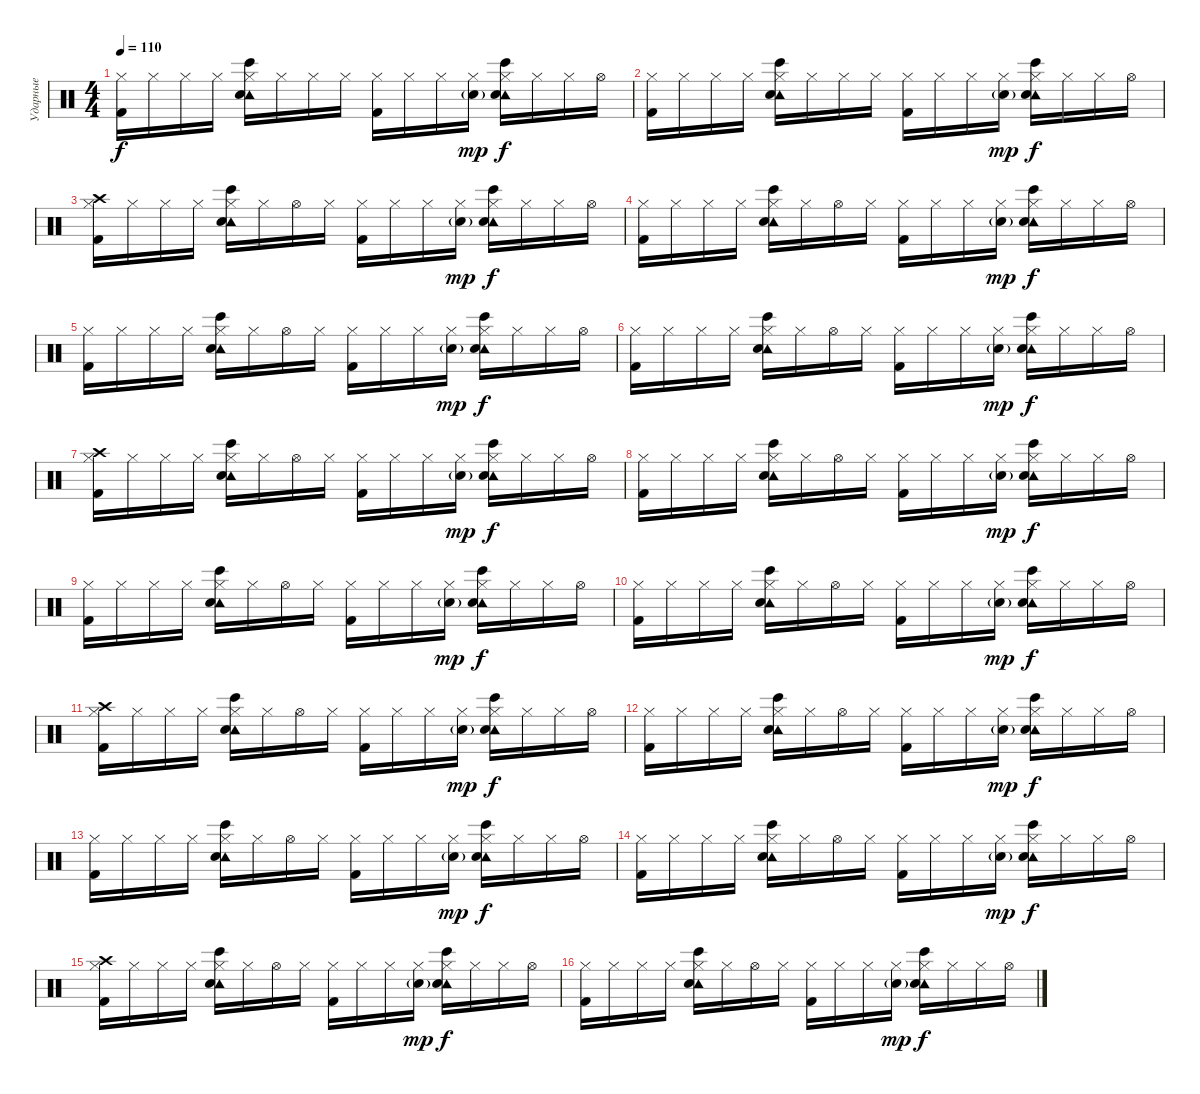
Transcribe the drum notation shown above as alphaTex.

\track ("Ударные" "Ударные") {instrument percussion}
\staff {score}
\articulation defaults
\ts (4 4)
\tempo 110
\clef neutral
\ks c
("Hi-Hat (closed)" "Kick (hit) 2").16{dy f} "Hi-Hat (closed)".16 "Hi-Hat (closed)".16 "Hi-Hat (closed)".16 ("Hi-Hat (closed)" "Tambourine (hit)" "Electric Snare (hit)" "Bongo High (hit)").16 "Hi-Hat (closed)".16 "Hi-Hat (closed)".16 "Hi-Hat (closed)".16 ("Hi-Hat (closed)" "Kick (hit) 2").16 "Hi-Hat (closed)".16 "Hi-Hat (closed)".16 ("Hi-Hat (closed)" "Electric Snare (hit)"{g}).16{dy mp} ("Hi-Hat (closed)" "Tambourine (hit)" "Electric Snare (hit)" "Bongo High (hit)").16{dy f} "Hi-Hat (closed)".16 "Hi-Hat (closed)".16 "Hi-Hat (open)".16 |
("Hi-Hat (closed)" "Kick (hit) 2").16 "Hi-Hat (closed)".16 "Hi-Hat (closed)".16 "Hi-Hat (closed)".16 ("Hi-Hat (closed)" "Tambourine (hit)" "Electric Snare (hit)" "Bongo High (hit)").16 "Hi-Hat (closed)".16 "Hi-Hat (closed)".16 "Hi-Hat (closed)".16 ("Hi-Hat (closed)" "Kick (hit) 2").16 "Hi-Hat (closed)".16 "Hi-Hat (closed)".16 ("Hi-Hat (closed)" "Electric Snare (hit)"{g}).16{dy mp} ("Hi-Hat (closed)" "Tambourine (hit)" "Electric Snare (hit)" "Bongo High (hit)").16{dy f} "Hi-Hat (closed)".16 "Hi-Hat (closed)".16 "Hi-Hat (open)".16 |
("Crash high (hit)" "Hi-Hat (closed)" "Kick (hit) 2").16 "Hi-Hat (closed)".16 "Hi-Hat (closed)".16 "Hi-Hat (closed)".16 ("Hi-Hat (closed)" "Tambourine (hit)" "Electric Snare (hit)" "Bongo High (hit)").16 "Hi-Hat (closed)".16 "Hi-Hat (open)".16 "Hi-Hat (closed)".16 ("Hi-Hat (closed)" "Kick (hit) 2").16 "Hi-Hat (closed)".16 "Hi-Hat (closed)".16 ("Hi-Hat (closed)" "Electric Snare (hit)"{g}).16{dy mp} ("Hi-Hat (closed)" "Tambourine (hit)" "Electric Snare (hit)" "Bongo High (hit)").16{dy f} "Hi-Hat (closed)".16 "Hi-Hat (closed)".16 "Hi-Hat (open)".16 |
("Hi-Hat (closed)" "Kick (hit) 2").16 "Hi-Hat (closed)".16 "Hi-Hat (closed)".16 "Hi-Hat (closed)".16 ("Hi-Hat (closed)" "Tambourine (hit)" "Electric Snare (hit)" "Bongo High (hit)").16 "Hi-Hat (closed)".16 "Hi-Hat (open)".16 "Hi-Hat (closed)".16 ("Hi-Hat (closed)" "Kick (hit) 2").16 "Hi-Hat (closed)".16 "Hi-Hat (closed)".16 ("Hi-Hat (closed)" "Electric Snare (hit)"{g}).16{dy mp} ("Hi-Hat (closed)" "Tambourine (hit)" "Electric Snare (hit)" "Bongo High (hit)").16{dy f} "Hi-Hat (closed)".16 "Hi-Hat (closed)".16 "Hi-Hat (open)".16 |
("Hi-Hat (closed)" "Kick (hit) 2").16 "Hi-Hat (closed)".16 "Hi-Hat (closed)".16 "Hi-Hat (closed)".16 ("Hi-Hat (closed)" "Tambourine (hit)" "Electric Snare (hit)" "Bongo High (hit)").16 "Hi-Hat (closed)".16 "Hi-Hat (open)".16 "Hi-Hat (closed)".16 ("Hi-Hat (closed)" "Kick (hit) 2").16 "Hi-Hat (closed)".16 "Hi-Hat (closed)".16 ("Hi-Hat (closed)" "Electric Snare (hit)"{g}).16{dy mp} ("Hi-Hat (closed)" "Tambourine (hit)" "Electric Snare (hit)" "Bongo High (hit)").16{dy f} "Hi-Hat (closed)".16 "Hi-Hat (closed)".16 "Hi-Hat (open)".16 |
("Hi-Hat (closed)" "Kick (hit) 2").16 "Hi-Hat (closed)".16 "Hi-Hat (closed)".16 "Hi-Hat (closed)".16 ("Hi-Hat (closed)" "Tambourine (hit)" "Electric Snare (hit)" "Bongo High (hit)").16 "Hi-Hat (closed)".16 "Hi-Hat (open)".16 "Hi-Hat (closed)".16 ("Hi-Hat (closed)" "Kick (hit) 2").16 "Hi-Hat (closed)".16 "Hi-Hat (closed)".16 ("Hi-Hat (closed)" "Electric Snare (hit)"{g}).16{dy mp} ("Hi-Hat (closed)" "Tambourine (hit)" "Electric Snare (hit)" "Bongo High (hit)").16{dy f} "Hi-Hat (closed)".16 "Hi-Hat (closed)".16 "Hi-Hat (open)".16 |
("Crash high (hit)" "Hi-Hat (closed)" "Kick (hit) 2").16 "Hi-Hat (closed)".16 "Hi-Hat (closed)".16 "Hi-Hat (closed)".16 ("Hi-Hat (closed)" "Tambourine (hit)" "Electric Snare (hit)" "Bongo High (hit)").16 "Hi-Hat (closed)".16 "Hi-Hat (open)".16 "Hi-Hat (closed)".16 ("Hi-Hat (closed)" "Kick (hit) 2").16 "Hi-Hat (closed)".16 "Hi-Hat (closed)".16 ("Hi-Hat (closed)" "Electric Snare (hit)"{g}).16{dy mp} ("Hi-Hat (closed)" "Tambourine (hit)" "Electric Snare (hit)" "Bongo High (hit)").16{dy f} "Hi-Hat (closed)".16 "Hi-Hat (closed)".16 "Hi-Hat (open)".16 |
("Hi-Hat (closed)" "Kick (hit) 2").16 "Hi-Hat (closed)".16 "Hi-Hat (closed)".16 "Hi-Hat (closed)".16 ("Hi-Hat (closed)" "Tambourine (hit)" "Electric Snare (hit)" "Bongo High (hit)").16 "Hi-Hat (closed)".16 "Hi-Hat (open)".16 "Hi-Hat (closed)".16 ("Hi-Hat (closed)" "Kick (hit) 2").16 "Hi-Hat (closed)".16 "Hi-Hat (closed)".16 ("Hi-Hat (closed)" "Electric Snare (hit)"{g}).16{dy mp} ("Hi-Hat (closed)" "Tambourine (hit)" "Electric Snare (hit)" "Bongo High (hit)").16{dy f} "Hi-Hat (closed)".16 "Hi-Hat (closed)".16 "Hi-Hat (open)".16 |
("Hi-Hat (closed)" "Kick (hit) 2").16 "Hi-Hat (closed)".16 "Hi-Hat (closed)".16 "Hi-Hat (closed)".16 ("Hi-Hat (closed)" "Tambourine (hit)" "Electric Snare (hit)" "Bongo High (hit)").16 "Hi-Hat (closed)".16 "Hi-Hat (open)".16 "Hi-Hat (closed)".16 ("Hi-Hat (closed)" "Kick (hit) 2").16 "Hi-Hat (closed)".16 "Hi-Hat (closed)".16 ("Hi-Hat (closed)" "Electric Snare (hit)"{g}).16{dy mp} ("Hi-Hat (closed)" "Tambourine (hit)" "Electric Snare (hit)" "Bongo High (hit)").16{dy f} "Hi-Hat (closed)".16 "Hi-Hat (closed)".16 "Hi-Hat (open)".16 |
("Hi-Hat (closed)" "Kick (hit) 2").16 "Hi-Hat (closed)".16 "Hi-Hat (closed)".16 "Hi-Hat (closed)".16 ("Hi-Hat (closed)" "Tambourine (hit)" "Electric Snare (hit)" "Bongo High (hit)").16 "Hi-Hat (closed)".16 "Hi-Hat (open)".16 "Hi-Hat (closed)".16 ("Hi-Hat (closed)" "Kick (hit) 2").16 "Hi-Hat (closed)".16 "Hi-Hat (closed)".16 ("Hi-Hat (closed)" "Electric Snare (hit)"{g}).16{dy mp} ("Hi-Hat (closed)" "Tambourine (hit)" "Electric Snare (hit)" "Bongo High (hit)").16{dy f} "Hi-Hat (closed)".16 "Hi-Hat (closed)".16 "Hi-Hat (open)".16 |
("Crash high (hit)" "Hi-Hat (closed)" "Kick (hit) 2").16 "Hi-Hat (closed)".16 "Hi-Hat (closed)".16 "Hi-Hat (closed)".16 ("Hi-Hat (closed)" "Tambourine (hit)" "Electric Snare (hit)" "Bongo High (hit)").16 "Hi-Hat (closed)".16 "Hi-Hat (open)".16 "Hi-Hat (closed)".16 ("Hi-Hat (closed)" "Kick (hit) 2").16 "Hi-Hat (closed)".16 "Hi-Hat (closed)".16 ("Hi-Hat (closed)" "Electric Snare (hit)"{g}).16{dy mp} ("Hi-Hat (closed)" "Tambourine (hit)" "Electric Snare (hit)" "Bongo High (hit)").16{dy f} "Hi-Hat (closed)".16 "Hi-Hat (closed)".16 "Hi-Hat (open)".16 |
("Hi-Hat (closed)" "Kick (hit) 2").16 "Hi-Hat (closed)".16 "Hi-Hat (closed)".16 "Hi-Hat (closed)".16 ("Hi-Hat (closed)" "Tambourine (hit)" "Electric Snare (hit)" "Bongo High (hit)").16 "Hi-Hat (closed)".16 "Hi-Hat (open)".16 "Hi-Hat (closed)".16 ("Hi-Hat (closed)" "Kick (hit) 2").16 "Hi-Hat (closed)".16 "Hi-Hat (closed)".16 ("Hi-Hat (closed)" "Electric Snare (hit)"{g}).16{dy mp} ("Hi-Hat (closed)" "Tambourine (hit)" "Electric Snare (hit)" "Bongo High (hit)").16{dy f} "Hi-Hat (closed)".16 "Hi-Hat (closed)".16 "Hi-Hat (open)".16 |
("Hi-Hat (closed)" "Kick (hit) 2").16 "Hi-Hat (closed)".16 "Hi-Hat (closed)".16 "Hi-Hat (closed)".16 ("Hi-Hat (closed)" "Tambourine (hit)" "Electric Snare (hit)" "Bongo High (hit)").16 "Hi-Hat (closed)".16 "Hi-Hat (open)".16 "Hi-Hat (closed)".16 ("Hi-Hat (closed)" "Kick (hit) 2").16 "Hi-Hat (closed)".16 "Hi-Hat (closed)".16 ("Hi-Hat (closed)" "Electric Snare (hit)"{g}).16{dy mp} ("Hi-Hat (closed)" "Tambourine (hit)" "Electric Snare (hit)" "Bongo High (hit)").16{dy f} "Hi-Hat (closed)".16 "Hi-Hat (closed)".16 "Hi-Hat (open)".16 |
("Hi-Hat (closed)" "Kick (hit) 2").16 "Hi-Hat (closed)".16 "Hi-Hat (closed)".16 "Hi-Hat (closed)".16 ("Hi-Hat (closed)" "Tambourine (hit)" "Electric Snare (hit)" "Bongo High (hit)").16 "Hi-Hat (closed)".16 "Hi-Hat (open)".16 "Hi-Hat (closed)".16 ("Hi-Hat (closed)" "Kick (hit) 2").16 "Hi-Hat (closed)".16 "Hi-Hat (closed)".16 ("Hi-Hat (closed)" "Electric Snare (hit)"{g}).16{dy mp} ("Hi-Hat (closed)" "Tambourine (hit)" "Electric Snare (hit)" "Bongo High (hit)").16{dy f} "Hi-Hat (closed)".16 "Hi-Hat (closed)".16 "Hi-Hat (open)".16 |
("Crash high (hit)" "Hi-Hat (closed)" "Kick (hit) 2").16 "Hi-Hat (closed)".16 "Hi-Hat (closed)".16 "Hi-Hat (closed)".16 ("Hi-Hat (closed)" "Tambourine (hit)" "Electric Snare (hit)" "Bongo High (hit)").16 "Hi-Hat (closed)".16 "Hi-Hat (open)".16 "Hi-Hat (closed)".16 ("Hi-Hat (closed)" "Kick (hit) 2").16 "Hi-Hat (closed)".16 "Hi-Hat (closed)".16 ("Hi-Hat (closed)" "Electric Snare (hit)"{g}).16{dy mp} ("Hi-Hat (closed)" "Tambourine (hit)" "Electric Snare (hit)" "Bongo High (hit)").16{dy f} "Hi-Hat (closed)".16 "Hi-Hat (closed)".16 "Hi-Hat (open)".16 |
("Hi-Hat (closed)" "Kick (hit) 2").16 "Hi-Hat (closed)".16 "Hi-Hat (closed)".16 "Hi-Hat (closed)".16 ("Hi-Hat (closed)" "Tambourine (hit)" "Electric Snare (hit)" "Bongo High (hit)").16 "Hi-Hat (closed)".16 "Hi-Hat (open)".16 "Hi-Hat (closed)".16 ("Hi-Hat (closed)" "Kick (hit) 2").16 "Hi-Hat (closed)".16 "Hi-Hat (closed)".16 ("Hi-Hat (closed)" "Electric Snare (hit)"{g}).16{dy mp} ("Hi-Hat (closed)" "Tambourine (hit)" "Electric Snare (hit)" "Bongo High (hit)").16{dy f} "Hi-Hat (closed)".16 "Hi-Hat (closed)".16 "Hi-Hat (open)".16
